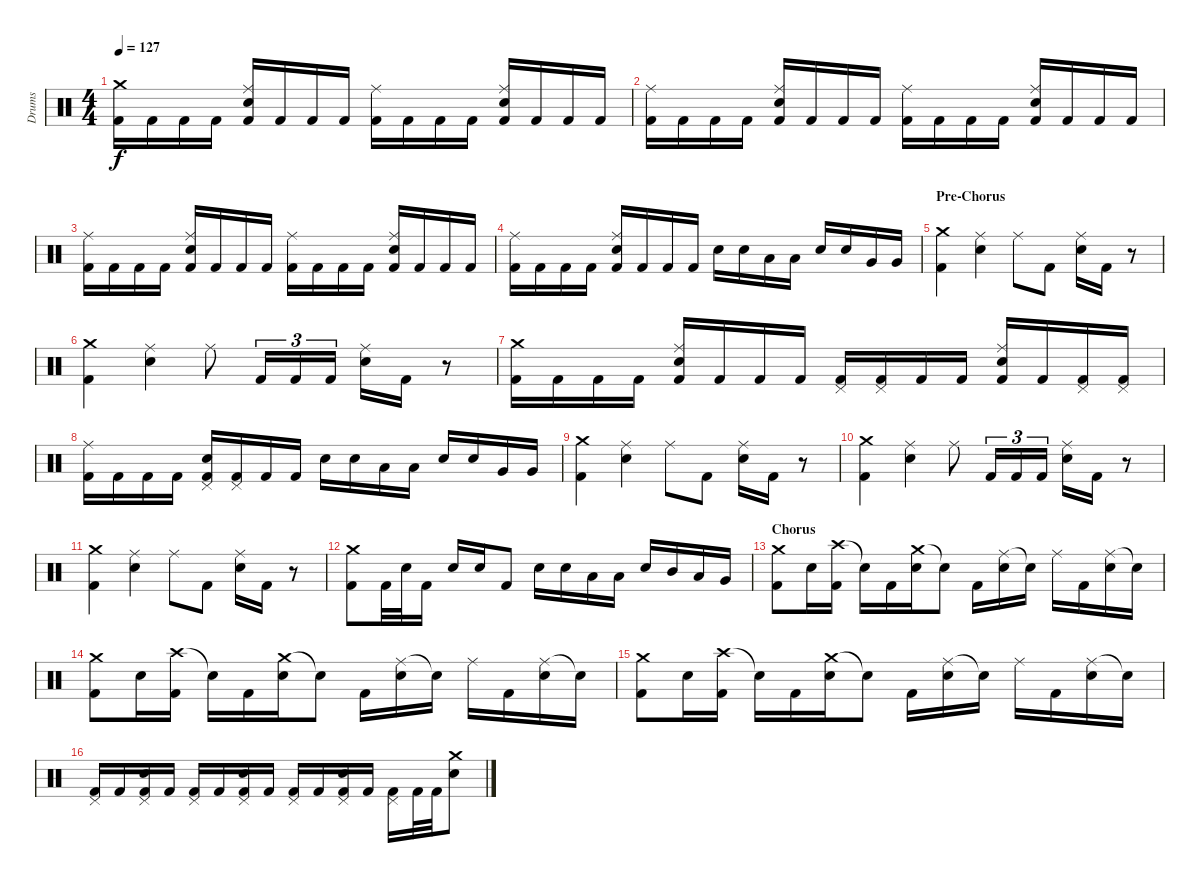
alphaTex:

\track ("Drums" "Drums") {instrument percussion}
\staff {score}
\articulation defaults
\ts (4 4)
\tempo 127
\clef neutral
\ks c
("Crash medium (hit)" "Kick (hit) 2").16{dy f} "Kick (hit) 2".16 "Kick (hit) 2".16 "Kick (hit) 2".16 ("Ride (middle)" "Electric Snare (hit)" "Kick (hit) 2").16 "Kick (hit) 2".16 "Kick (hit) 2".16 "Kick (hit) 2".16 ("Ride (middle)" "Kick (hit) 2").16 "Kick (hit) 2".16 "Kick (hit) 2".16 "Kick (hit) 2".16 ("Ride (middle)" "Electric Snare (hit)" "Kick (hit) 2").16 "Kick (hit) 2".16 "Kick (hit) 2".16 "Kick (hit) 2".16 |
("Ride (middle)" "Kick (hit) 2").16 "Kick (hit) 2".16 "Kick (hit) 2".16 "Kick (hit) 2".16 ("Ride (middle)" "Electric Snare (hit)" "Kick (hit) 2").16 "Kick (hit) 2".16 "Kick (hit) 2".16 "Kick (hit) 2".16 ("Ride (middle)" "Kick (hit) 2").16 "Kick (hit) 2".16 "Kick (hit) 2".16 "Kick (hit) 2".16 ("Ride (middle)" "Electric Snare (hit)" "Kick (hit) 2").16 "Kick (hit) 2".16 "Kick (hit) 2".16 "Kick (hit) 2".16 |
("Ride (middle)" "Kick (hit) 2").16 "Kick (hit) 2".16 "Kick (hit) 2".16 "Kick (hit) 2".16 ("Ride (middle)" "Electric Snare (hit)" "Kick (hit) 2").16 "Kick (hit) 2".16 "Kick (hit) 2".16 "Kick (hit) 2".16 ("Ride (middle)" "Kick (hit) 2").16 "Kick (hit) 2".16 "Kick (hit) 2".16 "Kick (hit) 2".16 ("Ride (middle)" "Electric Snare (hit)" "Kick (hit) 2").16 "Kick (hit) 2".16 "Kick (hit) 2".16 "Kick (hit) 2".16 |
("Ride (middle)" "Kick (hit) 2").16 "Kick (hit) 2".16 "Kick (hit) 2".16 "Kick (hit) 2".16 ("Ride (middle)" "Electric Snare (hit)" "Kick (hit) 2").16 "Kick (hit) 2".16 "Kick (hit) 2".16 "Kick (hit) 2".16 "Electric Snare (hit)".16 "Electric Snare (hit)".16 "Low Tom (hit)".16 "Low Tom (hit)".16 "Electric Snare (hit)".16 "Electric Snare (hit)".16 "Very Low Tom (hit)".16 "Very Low Tom (hit)".16 |
\section ("" "Pre-Chorus")
("Crash medium (hit)" "Kick (hit) 2").4 ("Ride (middle)" "Electric Snare (hit)").4 "Ride (middle)".8 "Kick (hit) 2".8 ("Ride (middle)" "Electric Snare (hit)").16 "Kick (hit) 2".16 r.8 |
("Crash medium (hit)" "Kick (hit) 2").4 ("Ride (middle)" "Electric Snare (hit)").4 "Ride (middle)".8 "Kick (hit) 2".16{tu (3 2)} "Kick (hit) 2".16{tu (3 2)} "Kick (hit) 2".16{tu (3 2)} ("Ride (middle)" "Electric Snare (hit)").16 "Kick (hit) 2".16 r.8 |
("Crash medium (hit)" "Kick (hit) 2").16 "Kick (hit) 2".16 "Kick (hit) 2".16 "Kick (hit) 2".16 ("Ride (middle)" "Electric Snare (hit)" "Kick (hit) 2").16 "Kick (hit) 2".16 "Kick (hit) 2".16 "Kick (hit) 2".16 ("Pedal Hi-Hat (hit)" "Kick (hit) 2").16 ("Pedal Hi-Hat (hit)" "Kick (hit) 2").16 "Kick (hit) 2".16 "Kick (hit) 2".16 ("Ride (middle)" "Electric Snare (hit)" "Kick (hit) 2").16 "Kick (hit) 2".16 ("Pedal Hi-Hat (hit)" "Kick (hit) 2").16 ("Pedal Hi-Hat (hit)" "Kick (hit) 2").16 |
("Ride (middle)" "Kick (hit) 2").16 "Kick (hit) 2".16 "Kick (hit) 2".16 "Kick (hit) 2".16 ("Pedal Hi-Hat (hit)" "Electric Snare (hit)" "Kick (hit) 2").16 ("Pedal Hi-Hat (hit)" "Kick (hit) 2").16 "Kick (hit) 2".16 "Kick (hit) 2".16 "Electric Snare (hit)".16 "Electric Snare (hit)".16 "Low Tom (hit)".16 "Low Tom (hit)".16 "Electric Snare (hit)".16 "Electric Snare (hit)".16 "Very Low Tom (hit)".16 "Very Low Tom (hit)".16 |
("Crash medium (hit)" "Kick (hit) 2").4 ("Ride (middle)" "Electric Snare (hit)").4 "Ride (middle)".8 "Kick (hit) 2".8 ("Ride (middle)" "Electric Snare (hit)").16 "Kick (hit) 2".16 r.8 |
("Crash medium (hit)" "Kick (hit) 2").4 ("Ride (middle)" "Electric Snare (hit)").4 "Ride (middle)".8 "Kick (hit) 2".16{tu (3 2)} "Kick (hit) 2".16{tu (3 2)} "Kick (hit) 2".16{tu (3 2)} ("Ride (middle)" "Electric Snare (hit)").16 "Kick (hit) 2".16 r.8 |
("Crash medium (hit)" "Kick (hit) 2").4 ("Ride (middle)" "Electric Snare (hit)").4 "Ride (middle)".8 "Kick (hit) 2".8 ("Ride (middle)" "Electric Snare (hit)").16 "Kick (hit) 2".16 r.8 |
("Crash medium (hit)" "Kick (hit) 2").8 "Kick (hit) 2".32 "Electric Snare (hit)".32 "Kick (hit) 2".16 "Electric Snare (hit)".16 "Electric Snare (hit)".16 "Kick (hit) 2".8 "Electric Snare (hit)".16 "Electric Snare (hit)".16 "Low Tom (hit)".16 "Low Tom (hit)".16 "Electric Snare (hit)".16 "Mid Tom (hit)".16 "Low Tom (hit)".16 "Very Low Tom (hit)".16 |
\section ("" "Chorus")
("Crash medium (hit)" "Kick (hit) 2").8 "Electric Snare (hit)".16 ("Crash high (hit)" "Kick (hit) 2").16 "Snare (hit)"{t}.16 "Kick (hit) 2".16 ("Crash medium (hit)" "Electric Snare (hit)").16 "Snare (hit)"{t}.8 "Kick (hit) 2".16 ("Ride (middle)" "Electric Snare (hit)").16 "Snare (hit)"{t}.16 "Ride (middle)".16 "Kick (hit) 2".16 ("Ride (middle)" "Electric Snare (hit)").16 "Snare (hit)"{t}.16 |
("Crash medium (hit)" "Kick (hit) 2").8 "Electric Snare (hit)".16 ("Crash high (hit)" "Kick (hit) 2").16 "Snare (hit)"{t}.16 "Kick (hit) 2".16 ("Crash medium (hit)" "Electric Snare (hit)").16 "Snare (hit)"{t}.8 "Kick (hit) 2".16 ("Ride (middle)" "Electric Snare (hit)").16 "Snare (hit)"{t}.16 "Ride (middle)".16 "Kick (hit) 2".16 ("Ride (middle)" "Electric Snare (hit)").16 "Snare (hit)"{t}.16 |
("Crash medium (hit)" "Kick (hit) 2").8 "Electric Snare (hit)".16 ("Crash high (hit)" "Kick (hit) 2").16 "Snare (hit)"{t}.16 "Kick (hit) 2".16 ("Crash medium (hit)" "Electric Snare (hit)").16 "Snare (hit)"{t}.8 "Kick (hit) 2".16 ("Ride (middle)" "Electric Snare (hit)").16 "Snare (hit)"{t}.16 "Ride (middle)".16 "Kick (hit) 2".16 ("Ride (middle)" "Electric Snare (hit)").16 "Snare (hit)"{t}.16 |
("Pedal Hi-Hat (hit)" "Kick (hit) 2").16 "Kick (hit) 2".16 ("Pedal Hi-Hat (hit)" "Electric Snare (hit)" "Kick (hit) 2").16 "Kick (hit) 2".16 ("Pedal Hi-Hat (hit)" "Kick (hit) 2").16 "Kick (hit) 2".16 ("Pedal Hi-Hat (hit)" "Electric Snare (hit)" "Kick (hit) 2").16 "Kick (hit) 2".16 ("Pedal Hi-Hat (hit)" "Kick (hit) 2").16 "Kick (hit) 2".16 ("Pedal Hi-Hat (hit)" "Electric Snare (hit)" "Kick (hit) 2").16 "Kick (hit) 2".16 ("Pedal Hi-Hat (hit)" "Kick (hit) 2").16 "Kick (hit) 2".32 "Kick (hit) 2".32 ("Crash medium (hit)" "Electric Snare (hit)").8
